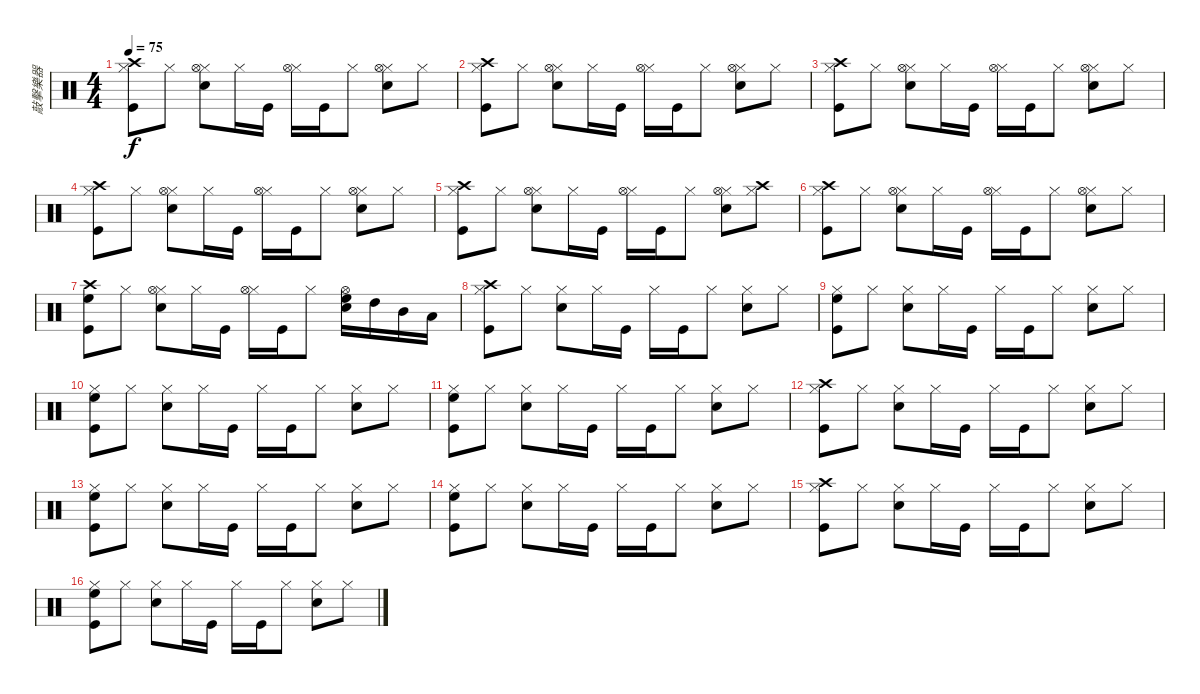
\track ("敲擊樂器" "敲擊樂器") {instrument percussion}
\staff {score}
\articulation defaults
\ts (4 4)
\tempo 75
\clef neutral
\ks c
("Hi-Hat (closed)" "Crash high (hit)" "Kick (hit)").8{dy f} "Hi-Hat (closed)".8 ("Hi-Hat (closed)" "Snare (hit) 2" "Hi-Hat (open)").8 "Hi-Hat (closed)".16 "Kick (hit)".16 ("Hi-Hat (closed)" "Hi-Hat (open)").16 "Kick (hit)".16 "Hi-Hat (closed)".8 ("Hi-Hat (closed)" "Snare (hit) 2" "Hi-Hat (open)").8 "Hi-Hat (closed)".8 |
("Hi-Hat (closed)" "Crash high (hit)" "Kick (hit)").8 "Hi-Hat (closed)".8 ("Hi-Hat (closed)" "Snare (hit) 2" "Hi-Hat (open)").8 "Hi-Hat (closed)".16 "Kick (hit)".16 ("Hi-Hat (closed)" "Hi-Hat (open)").16 "Kick (hit)".16 "Hi-Hat (closed)".8 ("Hi-Hat (closed)" "Snare (hit) 2" "Hi-Hat (open)").8 "Hi-Hat (closed)".8 |
("Hi-Hat (closed)" "Crash high (hit)" "Kick (hit)").8 "Hi-Hat (closed)".8 ("Hi-Hat (closed)" "Snare (hit) 2" "Hi-Hat (open)").8 "Hi-Hat (closed)".16 "Kick (hit)".16 ("Hi-Hat (closed)" "Hi-Hat (open)").16 "Kick (hit)".16 "Hi-Hat (closed)".8 ("Hi-Hat (closed)" "Snare (hit) 2" "Hi-Hat (open)").8 "Hi-Hat (closed)".8 |
("Hi-Hat (closed)" "Crash high (hit)" "Kick (hit)").8 "Hi-Hat (closed)".8 ("Hi-Hat (closed)" "Snare (hit) 2" "Hi-Hat (open)").8 "Hi-Hat (closed)".16 "Kick (hit)".16 ("Hi-Hat (closed)" "Hi-Hat (open)").16 "Kick (hit)".16 "Hi-Hat (closed)".8 ("Hi-Hat (closed)" "Snare (hit) 2" "Hi-Hat (open)").8 "Hi-Hat (closed)".8 |
("Hi-Hat (closed)" "Crash high (hit)" "Kick (hit)").8 "Hi-Hat (closed)".8 ("Hi-Hat (closed)" "Snare (hit) 2" "Hi-Hat (open)").8 "Hi-Hat (closed)".16 "Kick (hit)".16 ("Hi-Hat (closed)" "Hi-Hat (open)").16 "Kick (hit)".16 "Hi-Hat (closed)".8 ("Hi-Hat (closed)" "Snare (hit) 2" "Hi-Hat (open)").8 ("Hi-Hat (closed)" "Crash high (hit)").8 |
("Hi-Hat (closed)" "Crash high (hit)" "Kick (hit)").8 "Hi-Hat (closed)".8 ("Hi-Hat (closed)" "Snare (hit) 2" "Hi-Hat (open)").8 "Hi-Hat (closed)".16 "Kick (hit)".16 ("Hi-Hat (closed)" "Hi-Hat (open)").16 "Kick (hit)".16 "Hi-Hat (closed)".8 ("Hi-Hat (closed)" "Snare (hit) 2" "Hi-Hat (open)").8 "Hi-Hat (closed)".8 |
("High Floor Tom (hit)" "Crash high (hit)" "Kick (hit)").8 "Hi-Hat (closed)".8 ("Hi-Hat (closed)" "Snare (hit) 2" "Hi-Hat (open)").8 "Hi-Hat (closed)".16 "Kick (hit)".16 ("Hi-Hat (closed)" "Hi-Hat (open)").16 "Kick (hit)".16 "Hi-Hat (closed)".8 ("High Floor Tom (hit)" "Snare (hit) 2" "Hi-Hat (open)").16 "High Tom (hit)".16 "Mid Tom (hit)".16 "Low Tom (hit)".16 |
("Hi-Hat (closed)" "Crash high (hit)" "Kick (hit)").8 "Hi-Hat (closed)".8 ("Hi-Hat (closed)" "Snare (hit) 2").8 "Hi-Hat (closed)".16 "Kick (hit)".16 "Hi-Hat (closed)".16 "Kick (hit)".16 "Hi-Hat (closed)".8 ("Hi-Hat (closed)" "Snare (hit) 2").8 "Hi-Hat (closed)".8 |
("Hi-Hat (closed)" "High Floor Tom (hit)" "Kick (hit)").8 "Hi-Hat (closed)".8 ("Hi-Hat (closed)" "Snare (hit) 2").8 "Hi-Hat (closed)".16 "Kick (hit)".16 "Hi-Hat (closed)".16 "Kick (hit)".16 "Hi-Hat (closed)".8 ("Hi-Hat (closed)" "Snare (hit) 2").8 "Hi-Hat (closed)".8 |
("Hi-Hat (closed)" "High Floor Tom (hit)" "Kick (hit)").8 "Hi-Hat (closed)".8 ("Hi-Hat (closed)" "Snare (hit) 2").8 "Hi-Hat (closed)".16 "Kick (hit)".16 "Hi-Hat (closed)".16 "Kick (hit)".16 "Hi-Hat (closed)".8 ("Hi-Hat (closed)" "Snare (hit) 2").8 "Hi-Hat (closed)".8 |
("Hi-Hat (closed)" "High Floor Tom (hit)" "Kick (hit)").8 "Hi-Hat (closed)".8 ("Hi-Hat (closed)" "Snare (hit) 2").8 "Hi-Hat (closed)".16 "Kick (hit)".16 "Hi-Hat (closed)".16 "Kick (hit)".16 "Hi-Hat (closed)".8 ("Hi-Hat (closed)" "Snare (hit) 2").8 "Hi-Hat (closed)".8 |
("Hi-Hat (closed)" "Crash high (hit)" "Kick (hit)").8 "Hi-Hat (closed)".8 ("Hi-Hat (closed)" "Snare (hit) 2").8 "Hi-Hat (closed)".16 "Kick (hit)".16 "Hi-Hat (closed)".16 "Kick (hit)".16 "Hi-Hat (closed)".8 ("Hi-Hat (closed)" "Snare (hit) 2").8 "Hi-Hat (closed)".8 |
("Hi-Hat (closed)" "High Floor Tom (hit)" "Kick (hit)").8 "Hi-Hat (closed)".8 ("Hi-Hat (closed)" "Snare (hit) 2").8 "Hi-Hat (closed)".16 "Kick (hit)".16 "Hi-Hat (closed)".16 "Kick (hit)".16 "Hi-Hat (closed)".8 ("Hi-Hat (closed)" "Snare (hit) 2").8 "Hi-Hat (closed)".8 |
("Hi-Hat (closed)" "High Floor Tom (hit)" "Kick (hit)").8 "Hi-Hat (closed)".8 ("Hi-Hat (closed)" "Snare (hit) 2").8 "Hi-Hat (closed)".16 "Kick (hit)".16 "Hi-Hat (closed)".16 "Kick (hit)".16 "Hi-Hat (closed)".8 ("Hi-Hat (closed)" "Snare (hit) 2").8 "Hi-Hat (closed)".8 |
("Hi-Hat (closed)" "Crash high (hit)" "Kick (hit)").8 "Hi-Hat (closed)".8 ("Hi-Hat (closed)" "Snare (hit) 2").8 "Hi-Hat (closed)".16 "Kick (hit)".16 "Hi-Hat (closed)".16 "Kick (hit)".16 "Hi-Hat (closed)".8 ("Hi-Hat (closed)" "Snare (hit) 2").8 "Hi-Hat (closed)".8 |
("Hi-Hat (closed)" "High Floor Tom (hit)" "Kick (hit)").8 "Hi-Hat (closed)".8 ("Hi-Hat (closed)" "Snare (hit) 2").8 "Hi-Hat (closed)".16 "Kick (hit)".16 "Hi-Hat (closed)".16 "Kick (hit)".16 "Hi-Hat (closed)".8 ("Hi-Hat (closed)" "Snare (hit) 2").8 "Hi-Hat (closed)".8
